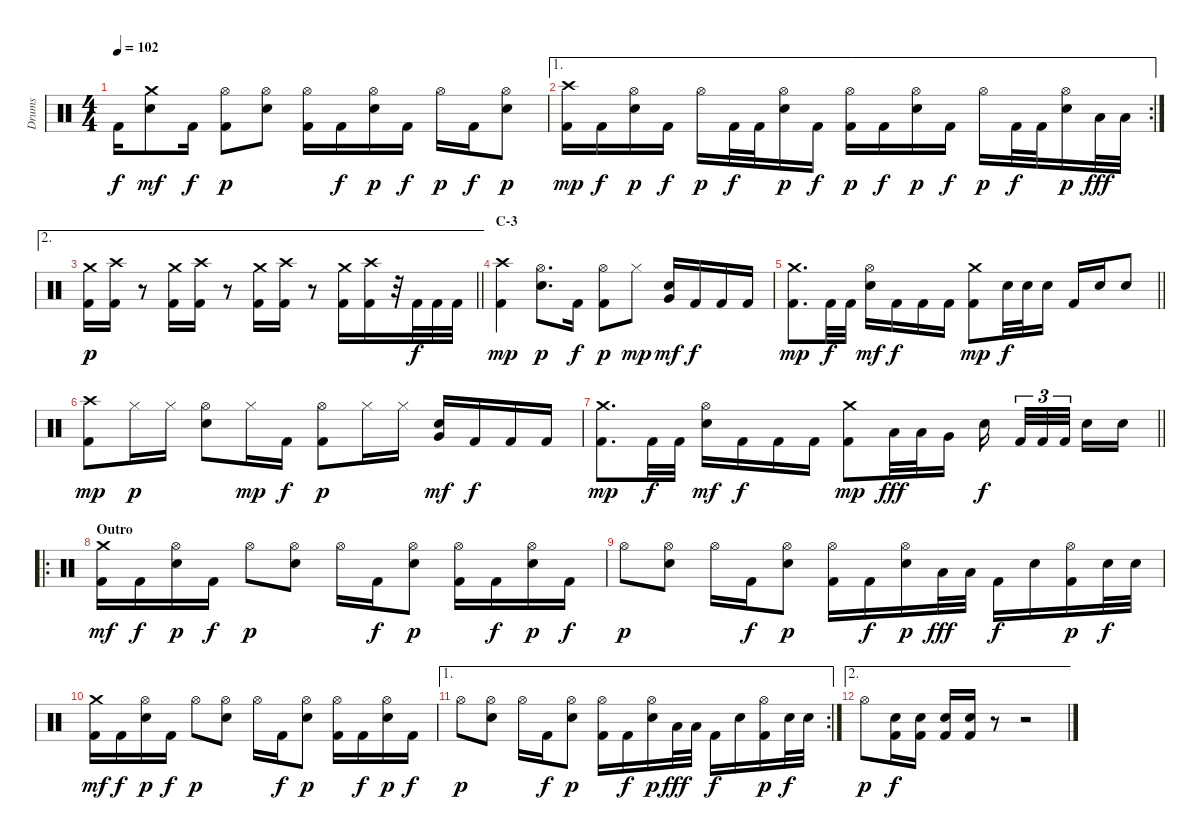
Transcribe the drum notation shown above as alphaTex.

\track ("Drums" "Drums") {instrument percussion}
\staff {score}
\articulation defaults
\ts (4 4)
\tempo 102
\clef neutral
\ks c "Kick (hit) 2".16{dy f}
("Crash medium (hit)" "Electric Snare (hit)").8{dy mf} "Kick (hit) 2".16{dy f} ("Hi-Hat (open)" "Kick (hit) 2").8{dy p} ("Hi-Hat (open)" "Electric Snare (hit)").8 ("Hi-Hat (open)" "Kick (hit) 2").16 "Kick (hit) 2".16{dy f} ("Hi-Hat (open)" "Electric Snare (hit)").16{dy p} "Kick (hit) 2".16{dy f} "Hi-Hat (open)".16{dy p} "Kick (hit) 2".16{dy f} ("Hi-Hat (open)" "Electric Snare (hit)").8{dy p} |
\ae 1
\rc 2
("Crash high (hit)" "Kick (hit) 2").16{dy mp} "Kick (hit) 2".16{dy f} ("Hi-Hat (open)" "Electric Snare (hit)").16{dy p} "Kick (hit) 2".16{dy f} "Hi-Hat (open)".16{dy p} "Kick (hit) 2".32{dy f} "Kick (hit) 2".32 ("Hi-Hat (open)" "Electric Snare (hit)").16{dy p} "Kick (hit) 2".16{dy f} ("Hi-Hat (open)" "Kick (hit) 2").16{dy p} "Kick (hit) 2".16{dy f} ("Hi-Hat (open)" "Electric Snare (hit)").16{dy p} "Kick (hit) 2".16{dy f} "Hi-Hat (open)".16{dy p} "Kick (hit) 2".32{dy f} "Kick (hit) 2".32 ("Hi-Hat (open)" "Electric Snare (hit)").16{dy p} "Low Tom (hit)".32{dy fff} "Low Tom (hit)".32 |
\ae 2
\barLineRight lightlight
("Crash medium (hit)" "Kick (hit) 2").16{dy p} ("Crash high (hit)" "Kick (hit) 2").16 r.8 ("Crash medium (hit)" "Kick (hit) 2").16 ("Crash high (hit)" "Kick (hit) 2").16 r.8 ("Crash medium (hit)" "Kick (hit) 2").16 ("Crash high (hit)" "Kick (hit) 2").16 r.8 ("Crash medium (hit)" "Kick (hit) 2").16 ("Crash high (hit)" "Kick (hit) 2").16 r.32 "Kick (hit) 2".32{dy f} "Kick (hit) 2".32 "Kick (hit) 2".32 |
\section ("" "C-3")
("Crash high (hit)" "Kick (hit) 2").4{dy mp} ("Hi-Hat (open)" "Electric Snare (hit)").8{d dy p} "Kick (hit) 2".16{dy f} ("Hi-Hat (open)" "Kick (hit) 2").8{dy p} "Hi-Hat (closed)".8{dy mp} ("Very Low Tom (hit)" "Electric Snare (hit)").16{dy mf} "Kick (hit) 2".16{dy f} "Kick (hit) 2".16 "Kick (hit) 2".16 |
\barLineRight lightlight
("Crash medium (hit)" "Kick (hit) 2").8{d dy mp} "Kick (hit) 2".32{dy f} "Kick (hit) 2".32 ("Hi-Hat (open)" "Electric Snare (hit)").16{dy mf} "Kick (hit) 2".16{dy f} "Kick (hit) 2".16 "Kick (hit) 2".16 ("Crash medium (hit)" "Kick (hit) 2").8{dy mp} "Electric Snare (hit)".32{dy f} "Electric Snare (hit)".32 "Electric Snare (hit)".16 "Kick (hit) 2".16 "Electric Snare (hit)".16 "Electric Snare (hit)".8 |
("Crash high (hit)" "Kick (hit) 2").8{dy mp} "Hi-Hat (closed)".16{dy p} "Hi-Hat (closed)".16 ("Hi-Hat (open)" "Electric Snare (hit)").8 "Hi-Hat (closed)".16{dy mp} "Kick (hit) 2".16{dy f} ("Hi-Hat (open)" "Kick (hit) 2").8{dy p} "Hi-Hat (closed)".16 "Hi-Hat (closed)".16 ("Very Low Tom (hit)" "Electric Snare (hit)").16{dy mf} "Kick (hit) 2".16{dy f} "Kick (hit) 2".16 "Kick (hit) 2".16 |
\barLineRight lightlight
("Crash medium (hit)" "Kick (hit) 2").8{d dy mp} "Kick (hit) 2".32{dy f} "Kick (hit) 2".32 ("Hi-Hat (open)" "Electric Snare (hit)").16{dy mf} "Kick (hit) 2".16{dy f} "Kick (hit) 2".16 "Kick (hit) 2".16 ("Crash medium (hit)" "Kick (hit) 2").8{dy mp} "Low Tom (hit)".32{dy fff} "Low Tom (hit)".32 "Very Low Tom (hit)".16 "Electric Snare (hit)".16{dy f beam splitsecondary} "Kick (hit) 2".32{tu (3 2)} "Kick (hit) 2".32{tu (3 2)} "Kick (hit) 2".32{tu (3 2) beam splitsecondary} "Electric Snare (hit)".16 "Electric Snare (hit)".16 |
\ro
\section ("" "Outro")
("Crash medium (hit)" "Kick (hit) 2").16{dy mf} "Kick (hit) 2".16{dy f} ("Hi-Hat (open)" "Electric Snare (hit)").16{dy p} "Kick (hit) 2".16{dy f} "Hi-Hat (open)".8{dy p} ("Hi-Hat (open)" "Electric Snare (hit)").8 "Hi-Hat (open)".16 "Kick (hit) 2".16{dy f} ("Hi-Hat (open)" "Electric Snare (hit)").8{dy p} ("Hi-Hat (open)" "Kick (hit) 2").16 "Kick (hit) 2".16{dy f} ("Hi-Hat (open)" "Electric Snare (hit)").16{dy p} "Kick (hit) 2".16{dy f} |
"Hi-Hat (open)".8{dy p} ("Hi-Hat (open)" "Electric Snare (hit)").8 "Hi-Hat (open)".16 "Kick (hit) 2".16{dy f} ("Hi-Hat (open)" "Electric Snare (hit)").8{dy p} ("Hi-Hat (open)" "Kick (hit) 2").16 "Kick (hit) 2".16{dy f} ("Hi-Hat (open)" "Electric Snare (hit)").16{dy p} "Low Tom (hit)".32{dy fff} "Low Tom (hit)".32 "Kick (hit) 2".16{dy f} "Electric Snare (hit)".16 ("Hi-Hat (open)" "Kick (hit) 2").16{dy p} "Electric Snare (hit)".32{dy f} "Electric Snare (hit)".32 |
("Crash medium (hit)" "Kick (hit) 2").16{dy mf} "Kick (hit) 2".16{dy f} ("Hi-Hat (open)" "Electric Snare (hit)").16{dy p} "Kick (hit) 2".16{dy f} "Hi-Hat (open)".8{dy p} ("Hi-Hat (open)" "Electric Snare (hit)").8 "Hi-Hat (open)".16 "Kick (hit) 2".16{dy f} ("Hi-Hat (open)" "Electric Snare (hit)").8{dy p} ("Hi-Hat (open)" "Kick (hit) 2").16 "Kick (hit) 2".16{dy f} ("Hi-Hat (open)" "Electric Snare (hit)").16{dy p} "Kick (hit) 2".16{dy f} |
\ae 1
\rc 2 "Hi-Hat (open)".8{dy p}
("Hi-Hat (open)" "Electric Snare (hit)").8 "Hi-Hat (open)".16 "Kick (hit) 2".16{dy f} ("Hi-Hat (open)" "Electric Snare (hit)").8{dy p} ("Hi-Hat (open)" "Kick (hit) 2").16 "Kick (hit) 2".16{dy f} ("Hi-Hat (open)" "Electric Snare (hit)").16{dy p} "Low Tom (hit)".32{dy fff} "Low Tom (hit)".32 "Kick (hit) 2".16{dy f} "Electric Snare (hit)".16 ("Hi-Hat (open)" "Kick (hit) 2").16{dy p} "Electric Snare (hit)".32{dy f} "Electric Snare (hit)".32 |
\ae 2 "Hi-Hat (open)".8{dy p}
("Electric Snare (hit)" "Kick (hit) 2").16{dy f} ("Electric Snare (hit)" "Kick (hit) 2").16 ("Electric Snare (hit)" "Kick (hit) 2").16 ("Electric Snare (hit)" "Kick (hit) 2").16 r.8 r.2
